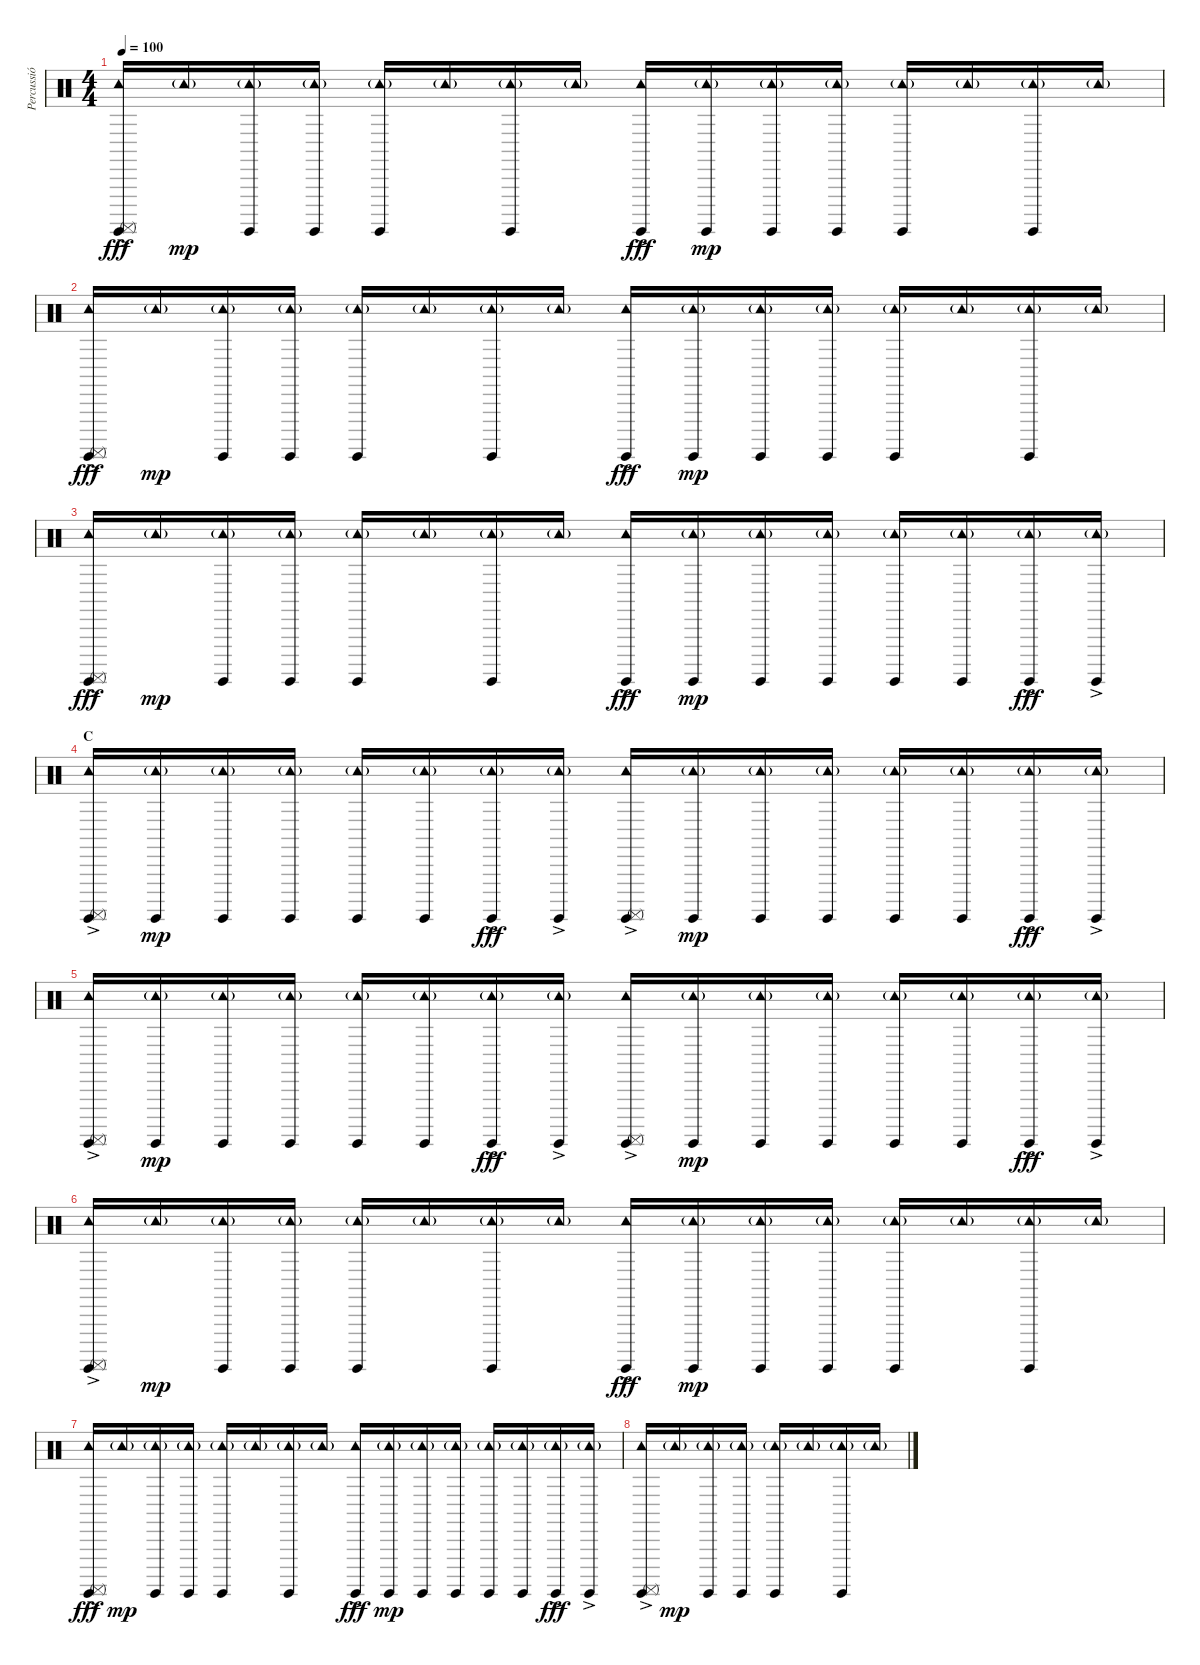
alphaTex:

\track ("Percussió" "Percussió") {instrument percussion}
\staff {score}
\articulation defaults
\ts (4 4)
\tempo 100
\clef neutral
\ks c
("Tambourine (hit)"{ac} "Surdo (hit)" "Surdo (mute)"{ac}).16{dy fff} "Tambourine (hit)"{g}.16{dy mp} ("Tambourine (hit)"{g} "Surdo (hit)").16 ("Tambourine (hit)"{g} "Surdo (hit)").16 ("Tambourine (hit)"{g} "Surdo (hit)").16 "Tambourine (hit)"{g}.16 ("Tambourine (hit)"{g} "Surdo (hit)").16 "Tambourine (hit)"{g}.16 ("Tambourine (hit)"{ac} "Surdo (hit)"{ac}).16{dy fff} ("Tambourine (hit)"{g} "Surdo (hit)").16{dy mp} ("Tambourine (hit)"{g} "Surdo (hit)").16 ("Tambourine (hit)"{g} "Surdo (hit)").16 ("Tambourine (hit)"{g} "Surdo (hit)").16 "Tambourine (hit)"{g}.16 ("Tambourine (hit)"{g} "Surdo (hit)").16 "Tambourine (hit)"{g}.16 |
("Tambourine (hit)"{ac} "Surdo (hit)" "Surdo (mute)"{ac}).16{dy fff} "Tambourine (hit)"{g}.16{dy mp} ("Tambourine (hit)"{g} "Surdo (hit)").16 ("Tambourine (hit)"{g} "Surdo (hit)").16 ("Tambourine (hit)"{g} "Surdo (hit)").16 "Tambourine (hit)"{g}.16 ("Tambourine (hit)"{g} "Surdo (hit)").16 "Tambourine (hit)"{g}.16 ("Tambourine (hit)"{ac} "Surdo (hit)"{ac}).16{dy fff} ("Tambourine (hit)"{g} "Surdo (hit)").16{dy mp} ("Tambourine (hit)"{g} "Surdo (hit)").16 ("Tambourine (hit)"{g} "Surdo (hit)").16 ("Tambourine (hit)"{g} "Surdo (hit)").16 "Tambourine (hit)"{g}.16 ("Tambourine (hit)"{g} "Surdo (hit)").16 "Tambourine (hit)"{g}.16 |
("Tambourine (hit)"{ac} "Surdo (hit)" "Surdo (mute)"{ac}).16{dy fff} "Tambourine (hit)"{g}.16{dy mp} ("Tambourine (hit)"{g} "Surdo (hit)").16 ("Tambourine (hit)"{g} "Surdo (hit)").16 ("Tambourine (hit)"{g} "Surdo (hit)").16 "Tambourine (hit)"{g}.16 ("Tambourine (hit)"{g} "Surdo (hit)").16 "Tambourine (hit)"{g}.16 ("Tambourine (hit)"{ac} "Surdo (hit)"{ac}).16{dy fff} ("Tambourine (hit)"{g} "Surdo (hit)").16{dy mp} ("Tambourine (hit)"{g} "Surdo (hit)").16 ("Tambourine (hit)"{g} "Surdo (hit)").16 ("Tambourine (hit)"{g} "Surdo (hit)").16 ("Tambourine (hit)"{g} "Surdo (hit)").16 ("Tambourine (hit)"{g} "Surdo (hit)"{ac}).16{dy fff} ("Tambourine (hit)"{g} "Surdo (hit)"{ac}).16 |
\section ("" "C")
("Tambourine (hit)"{ac} "Surdo (hit)" "Surdo (mute)"{ac}).16 ("Tambourine (hit)"{g} "Surdo (hit)").16{dy mp} ("Tambourine (hit)"{g} "Surdo (hit)").16 ("Tambourine (hit)"{g} "Surdo (hit)").16 ("Tambourine (hit)"{g} "Surdo (hit)").16 ("Tambourine (hit)"{g} "Surdo (hit)").16 ("Tambourine (hit)"{g} "Surdo (hit)"{ac}).16{dy fff} ("Tambourine (hit)"{g} "Surdo (hit)"{ac}).16 ("Tambourine (hit)"{ac} "Surdo (hit)"{ac} "Surdo (mute)"{ac}).16 ("Tambourine (hit)"{g} "Surdo (hit)").16{dy mp} ("Tambourine (hit)"{g} "Surdo (hit)").16 ("Tambourine (hit)"{g} "Surdo (hit)").16 ("Tambourine (hit)"{g} "Surdo (hit)").16 ("Tambourine (hit)"{g} "Surdo (hit)").16 ("Tambourine (hit)"{g} "Surdo (hit)"{ac}).16{dy fff} ("Tambourine (hit)"{g} "Surdo (hit)"{ac}).16 |
("Tambourine (hit)"{ac} "Surdo (hit)" "Surdo (mute)"{ac}).16 ("Tambourine (hit)"{g} "Surdo (hit)").16{dy mp} ("Tambourine (hit)"{g} "Surdo (hit)").16 ("Tambourine (hit)"{g} "Surdo (hit)").16 ("Tambourine (hit)"{g} "Surdo (hit)").16 ("Tambourine (hit)"{g} "Surdo (hit)").16 ("Tambourine (hit)"{g} "Surdo (hit)"{ac}).16{dy fff} ("Tambourine (hit)"{g} "Surdo (hit)"{ac}).16 ("Tambourine (hit)"{ac} "Surdo (hit)"{ac} "Surdo (mute)"{ac}).16 ("Tambourine (hit)"{g} "Surdo (hit)").16{dy mp} ("Tambourine (hit)"{g} "Surdo (hit)").16 ("Tambourine (hit)"{g} "Surdo (hit)").16 ("Tambourine (hit)"{g} "Surdo (hit)").16 ("Tambourine (hit)"{g} "Surdo (hit)").16 ("Tambourine (hit)"{g} "Surdo (hit)"{ac}).16{dy fff} ("Tambourine (hit)"{g} "Surdo (hit)"{ac}).16 |
("Tambourine (hit)"{ac} "Surdo (hit)" "Surdo (mute)"{ac}).16 "Tambourine (hit)"{g}.16{dy mp} ("Tambourine (hit)"{g} "Surdo (hit)").16 ("Tambourine (hit)"{g} "Surdo (hit)").16 ("Tambourine (hit)"{g} "Surdo (hit)").16 "Tambourine (hit)"{g}.16 ("Tambourine (hit)"{g} "Surdo (hit)").16 "Tambourine (hit)"{g}.16 ("Tambourine (hit)"{ac} "Surdo (hit)"{ac}).16{dy fff} ("Tambourine (hit)"{g} "Surdo (hit)").16{dy mp} ("Tambourine (hit)"{g} "Surdo (hit)").16 ("Tambourine (hit)"{g} "Surdo (hit)").16 ("Tambourine (hit)"{g} "Surdo (hit)").16 "Tambourine (hit)"{g}.16 ("Tambourine (hit)"{g} "Surdo (hit)").16 "Tambourine (hit)"{g}.16 |
("Tambourine (hit)"{ac} "Surdo (hit)" "Surdo (mute)"{ac}).16{dy fff} "Tambourine (hit)"{g}.16{dy mp} ("Tambourine (hit)"{g} "Surdo (hit)").16 ("Tambourine (hit)"{g} "Surdo (hit)").16 ("Tambourine (hit)"{g} "Surdo (hit)").16 "Tambourine (hit)"{g}.16 ("Tambourine (hit)"{g} "Surdo (hit)").16 "Tambourine (hit)"{g}.16 ("Tambourine (hit)"{ac} "Surdo (hit)"{ac}).16{dy fff} ("Tambourine (hit)"{g} "Surdo (hit)").16{dy mp} ("Tambourine (hit)"{g} "Surdo (hit)").16 ("Tambourine (hit)"{g} "Surdo (hit)").16 ("Tambourine (hit)"{g} "Surdo (hit)").16 ("Tambourine (hit)"{g} "Surdo (hit)").16 ("Tambourine (hit)"{g} "Surdo (hit)"{ac}).16{dy fff} ("Tambourine (hit)"{g} "Surdo (hit)"{ac}).16 |
("Tambourine (hit)"{ac} "Surdo (hit)" "Surdo (mute)"{ac}).16 "Tambourine (hit)"{g}.16{dy mp} ("Tambourine (hit)"{g} "Surdo (hit)").16 ("Tambourine (hit)"{g} "Surdo (hit)").16 ("Tambourine (hit)"{g} "Surdo (hit)").16 "Tambourine (hit)"{g}.16 ("Tambourine (hit)"{g} "Surdo (hit)").16 "Tambourine (hit)"{g}.16
